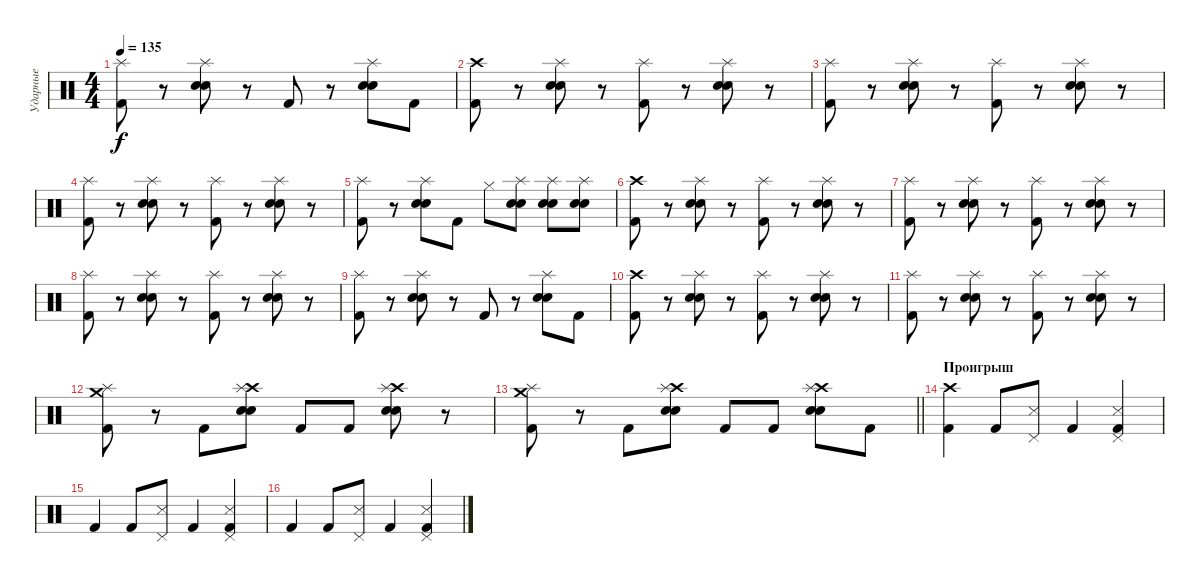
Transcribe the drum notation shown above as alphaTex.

\track ("Ударные" "Ударные") {instrument percussion}
\staff {score}
\articulation defaults
\ts (4 4)
\tempo 135
\clef neutral
\ks c
("Splash (hit)" "Kick (hit) 2").8{dy f} r.8 ("Splash (hit)" "Electric Snare (hit)" "Snare (hit) 2").8 r.8 "Kick (hit) 2".8 r.8 ("Splash (hit)" "Electric Snare (hit)" "Snare (hit) 2").8 "Kick (hit) 2".8 |
("Crash high (hit)" "Kick (hit) 2").8 r.8 ("Splash (hit)" "Electric Snare (hit)" "Snare (hit) 2").8 r.8 ("Splash (hit)" "Kick (hit) 2").8 r.8 ("Splash (hit)" "Electric Snare (hit)" "Snare (hit) 2").8 r.8 |
("Splash (hit)" "Kick (hit) 2").8 r.8 ("Splash (hit)" "Electric Snare (hit)" "Snare (hit) 2").8 r.8 ("Splash (hit)" "Kick (hit) 2").8 r.8 ("Splash (hit)" "Electric Snare (hit)" "Snare (hit) 2").8 r.8 |
("Splash (hit)" "Kick (hit) 2").8 r.8 ("Splash (hit)" "Electric Snare (hit)" "Snare (hit) 2").8 r.8 ("Splash (hit)" "Kick (hit) 2").8 r.8 ("Splash (hit)" "Electric Snare (hit)" "Snare (hit) 2").8 r.8 |
("Splash (hit)" "Kick (hit) 2").8 r.8 ("Splash (hit)" "Electric Snare (hit)" "Snare (hit) 2").8 "Kick (hit) 2".8 "Hi-Hat (closed)".8 ("Splash (hit)" "Electric Snare (hit)" "Snare (hit) 2").8 ("Splash (hit)" "Electric Snare (hit)" "Snare (hit) 2").8 ("Splash (hit)" "Electric Snare (hit)" "Snare (hit) 2").8 |
("Crash high (hit)" "Kick (hit) 2").8 r.8 ("Splash (hit)" "Electric Snare (hit)" "Snare (hit) 2").8 r.8 ("Splash (hit)" "Kick (hit) 2").8 r.8 ("Splash (hit)" "Electric Snare (hit)" "Snare (hit) 2").8 r.8 |
("Splash (hit)" "Kick (hit) 2").8 r.8 ("Splash (hit)" "Electric Snare (hit)" "Snare (hit) 2").8 r.8 ("Splash (hit)" "Kick (hit) 2").8 r.8 ("Splash (hit)" "Electric Snare (hit)" "Snare (hit) 2").8 r.8 |
("Splash (hit)" "Kick (hit) 2").8 r.8 ("Splash (hit)" "Electric Snare (hit)" "Snare (hit) 2").8 r.8 ("Splash (hit)" "Kick (hit) 2").8 r.8 ("Splash (hit)" "Electric Snare (hit)" "Snare (hit) 2").8 r.8 |
("Splash (hit)" "Kick (hit) 2").8 r.8 ("Splash (hit)" "Electric Snare (hit)" "Snare (hit) 2").8 r.8 "Kick (hit) 2".8 r.8 ("Splash (hit)" "Electric Snare (hit)" "Snare (hit) 2").8 "Kick (hit) 2".8 |
("Crash high (hit)" "Kick (hit) 2").8 r.8 ("Splash (hit)" "Electric Snare (hit)" "Snare (hit) 2").8 r.8 ("Splash (hit)" "Kick (hit) 2").8 r.8 ("Splash (hit)" "Electric Snare (hit)" "Snare (hit) 2").8 r.8 |
("Splash (hit)" "Kick (hit) 2").8 r.8 ("Splash (hit)" "Electric Snare (hit)" "Snare (hit) 2").8 r.8 ("Splash (hit)" "Kick (hit) 2").8 r.8 ("Splash (hit)" "Electric Snare (hit)" "Snare (hit) 2").8 r.8 |
("Crash medium (hit)" "Splash (hit)" "Kick (hit) 2").8 r.8 "Kick (hit) 2".8 ("Crash high (hit)" "Splash (hit)" "Electric Snare (hit)" "Snare (hit) 2").8 "Kick (hit) 2".8 "Kick (hit) 2".8 ("Crash high (hit)" "Splash (hit)" "Electric Snare (hit)" "Snare (hit) 2").8 r.8 |
\barLineRight lightlight
("Crash medium (hit)" "Splash (hit)" "Kick (hit) 2").8 r.8 "Kick (hit) 2".8 ("Crash high (hit)" "Splash (hit)" "Electric Snare (hit)" "Snare (hit) 2").8 "Kick (hit) 2".8 "Kick (hit) 2".8 ("Crash high (hit)" "Splash (hit)" "Electric Snare (hit)" "Snare (hit) 2").8 "Kick (hit) 2".8 |
\section ("" "Проигрыш")
("Crash high (hit)" "Kick (hit) 2").4 "Kick (hit) 2".8 ("Pedal Hi-Hat (hit)" "Metronome (hit)").8 "Kick (hit) 2".4 ("Pedal Hi-Hat (hit)" "Metronome (hit)" "Kick (hit) 2").4 |
"Kick (hit) 2".4 "Kick (hit) 2".8 ("Pedal Hi-Hat (hit)" "Metronome (hit)").8 "Kick (hit) 2".4 ("Pedal Hi-Hat (hit)" "Metronome (hit)" "Kick (hit) 2").4 |
"Kick (hit) 2".4 "Kick (hit) 2".8 ("Pedal Hi-Hat (hit)" "Metronome (hit)").8 "Kick (hit) 2".4 ("Pedal Hi-Hat (hit)" "Metronome (hit)" "Kick (hit) 2").4
